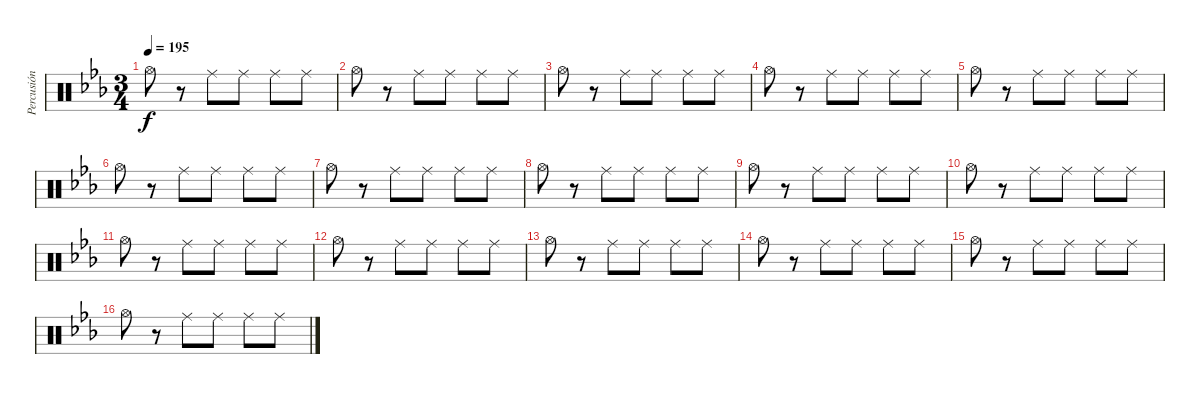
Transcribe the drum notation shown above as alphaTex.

\track ("Percusión" "Percusión") {instrument percussion}
\staff {score}
\articulation defaults
\ts (3 4)
\tempo 195
\clef neutral
\ks eb "Hi-Hat (open)".8{dy f}
r.8 "Ride (middle)".8 "Ride (middle)".8 "Ride (middle)".8 "Ride (middle)".8 |
"Hi-Hat (open)".8 r.8 "Ride (middle)".8 "Ride (middle)".8 "Ride (middle)".8 "Ride (middle)".8 |
"Hi-Hat (open)".8 r.8 "Ride (middle)".8 "Ride (middle)".8 "Ride (middle)".8 "Ride (middle)".8 |
"Hi-Hat (open)".8 r.8 "Ride (middle)".8 "Ride (middle)".8 "Ride (middle)".8 "Ride (middle)".8 |
"Hi-Hat (open)".8 r.8 "Ride (middle)".8 "Ride (middle)".8 "Ride (middle)".8 "Ride (middle)".8 |
"Hi-Hat (open)".8 r.8 "Ride (middle)".8 "Ride (middle)".8 "Ride (middle)".8 "Ride (middle)".8 |
"Hi-Hat (open)".8 r.8 "Ride (middle)".8 "Ride (middle)".8 "Ride (middle)".8 "Ride (middle)".8 |
"Hi-Hat (open)".8 r.8 "Ride (middle)".8 "Ride (middle)".8 "Ride (middle)".8 "Ride (middle)".8 |
"Hi-Hat (open)".8 r.8 "Ride (middle)".8 "Ride (middle)".8 "Ride (middle)".8 "Ride (middle)".8 |
"Hi-Hat (open)".8 r.8 "Ride (middle)".8 "Ride (middle)".8 "Ride (middle)".8 "Ride (middle)".8 |
"Hi-Hat (open)".8 r.8 "Ride (middle)".8 "Ride (middle)".8 "Ride (middle)".8 "Ride (middle)".8 |
"Hi-Hat (open)".8 r.8 "Ride (middle)".8 "Ride (middle)".8 "Ride (middle)".8 "Ride (middle)".8 |
"Hi-Hat (open)".8 r.8 "Ride (middle)".8 "Ride (middle)".8 "Ride (middle)".8 "Ride (middle)".8 |
"Hi-Hat (open)".8 r.8 "Ride (middle)".8 "Ride (middle)".8 "Ride (middle)".8 "Ride (middle)".8 |
"Hi-Hat (open)".8 r.8 "Ride (middle)".8 "Ride (middle)".8 "Ride (middle)".8 "Ride (middle)".8 |
"Hi-Hat (open)".8 r.8 "Ride (middle)".8 "Ride (middle)".8 "Ride (middle)".8 "Ride (middle)".8
